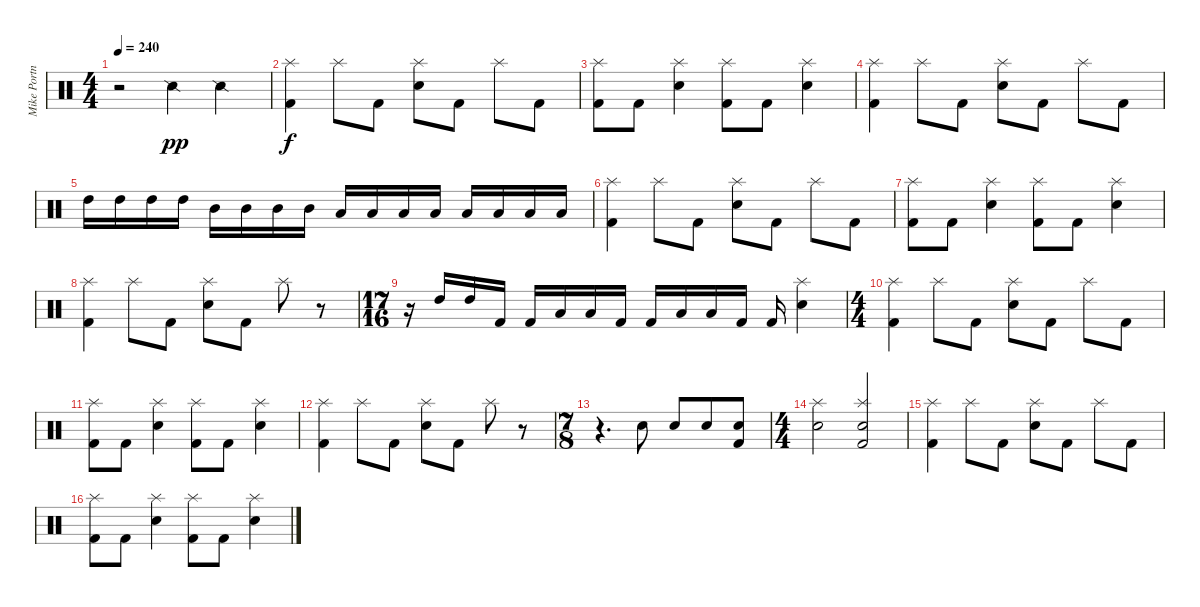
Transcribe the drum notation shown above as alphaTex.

\track ("Mike Portnoy" "Mike Portn") {instrument percussion}
\staff {score}
\articulation defaults
\ts (4 4)
\tempo 240
\clef neutral
\ks c
r.2{dy f} "Snare (side stick) 2".4{dy pp} "Snare (side stick) 2".4 |
("Kick (hit) 2" "Splash (hit)").4{dy f} "Splash (hit)".8 "Kick (hit) 2".8 ("Electric Snare (hit)" "Splash (hit)").8 "Kick (hit) 2".8 "Splash (hit)".8 "Kick (hit) 2".8 |
("Kick (hit) 2" "Splash (hit)").8 "Kick (hit) 2".8 ("Electric Snare (hit)" "Splash (hit)").4 ("Kick (hit) 2" "Splash (hit)").8 "Kick (hit) 2".8 ("Electric Snare (hit)" "Splash (hit)").4 |
("Kick (hit) 2" "Splash (hit)").4 "Splash (hit)".8 "Kick (hit) 2".8 ("Electric Snare (hit)" "Splash (hit)").8 "Kick (hit) 2".8 "Splash (hit)".8 "Kick (hit) 2".8 |
"High Tom (hit)".16 "High Tom (hit)".16 "High Tom (hit)".16 "High Tom (hit)".16 "Mid Tom (hit)".16 "Mid Tom (hit)".16 "Mid Tom (hit)".16 "Mid Tom (hit)".16 "Low Tom (hit)".16 "Low Tom (hit)".16 "Low Tom (hit)".16 "Low Tom (hit)".16 "Low Floor Tom (hit)".16 "Low Floor Tom (hit)".16 "Low Floor Tom (hit)".16 "Low Floor Tom (hit)".16 |
("Kick (hit) 2" "Splash (hit)").4 "Splash (hit)".8 "Kick (hit) 2".8 ("Electric Snare (hit)" "Splash (hit)").8 "Kick (hit) 2".8 "Splash (hit)".8 "Kick (hit) 2".8 |
("Kick (hit) 2" "Splash (hit)").8 "Kick (hit) 2".8 ("Electric Snare (hit)" "Splash (hit)").4 ("Kick (hit) 2" "Splash (hit)").8 "Kick (hit) 2".8 ("Electric Snare (hit)" "Splash (hit)").4 |
("Kick (hit) 2" "Splash (hit)").4 "Splash (hit)".8 "Kick (hit) 2".8 ("Electric Snare (hit)" "Splash (hit)").8 "Kick (hit) 2".8 "Splash (hit)".8 r.8 |
\ts (17 16)
r.16 "High Tom (hit)".16 "High Tom (hit)".16 "Kick (hit) 2".16 "Kick (hit) 2".16 "Low Tom (hit)".16 "Low Tom (hit)".16 "Kick (hit) 2".16 "Kick (hit) 2".16 "Low Floor Tom (hit)".16 "Low Floor Tom (hit)".16 "Kick (hit) 2".16 "Kick (hit) 2".16 ("Electric Snare (hit)" "Splash (hit)").4 |
\ts (4 4)
("Kick (hit) 2" "Splash (hit)").4 "Splash (hit)".8 "Kick (hit) 2".8 ("Electric Snare (hit)" "Splash (hit)").8 "Kick (hit) 2".8 "Splash (hit)".8 "Kick (hit) 2".8 |
("Kick (hit) 2" "Splash (hit)").8 "Kick (hit) 2".8 ("Electric Snare (hit)" "Splash (hit)").4 ("Kick (hit) 2" "Splash (hit)").8 "Kick (hit) 2".8 ("Electric Snare (hit)" "Splash (hit)").4 |
("Kick (hit) 2" "Splash (hit)").4 "Splash (hit)".8 "Kick (hit) 2".8 ("Electric Snare (hit)" "Splash (hit)").8 "Kick (hit) 2".8 "Splash (hit)".8 r.8 |
\ts (7 8)
r.4{d} "Electric Snare (hit)".8 "Electric Snare (hit)".8 "Electric Snare (hit)".8 ("Electric Snare (hit)" "Kick (hit) 2").8 |
\ts (4 4)
("Electric Snare (hit)" "Splash (hit)").2 ("Electric Snare (hit)" "Splash (hit)" "Kick (hit) 2").2 |
("Kick (hit) 2" "Splash (hit)").4 "Splash (hit)".8 "Kick (hit) 2".8 ("Electric Snare (hit)" "Splash (hit)").8 "Kick (hit) 2".8 "Splash (hit)".8 "Kick (hit) 2".8 |
("Kick (hit) 2" "Splash (hit)").8 "Kick (hit) 2".8 ("Electric Snare (hit)" "Splash (hit)").4 ("Kick (hit) 2" "Splash (hit)").8 "Kick (hit) 2".8 ("Electric Snare (hit)" "Splash (hit)").4
